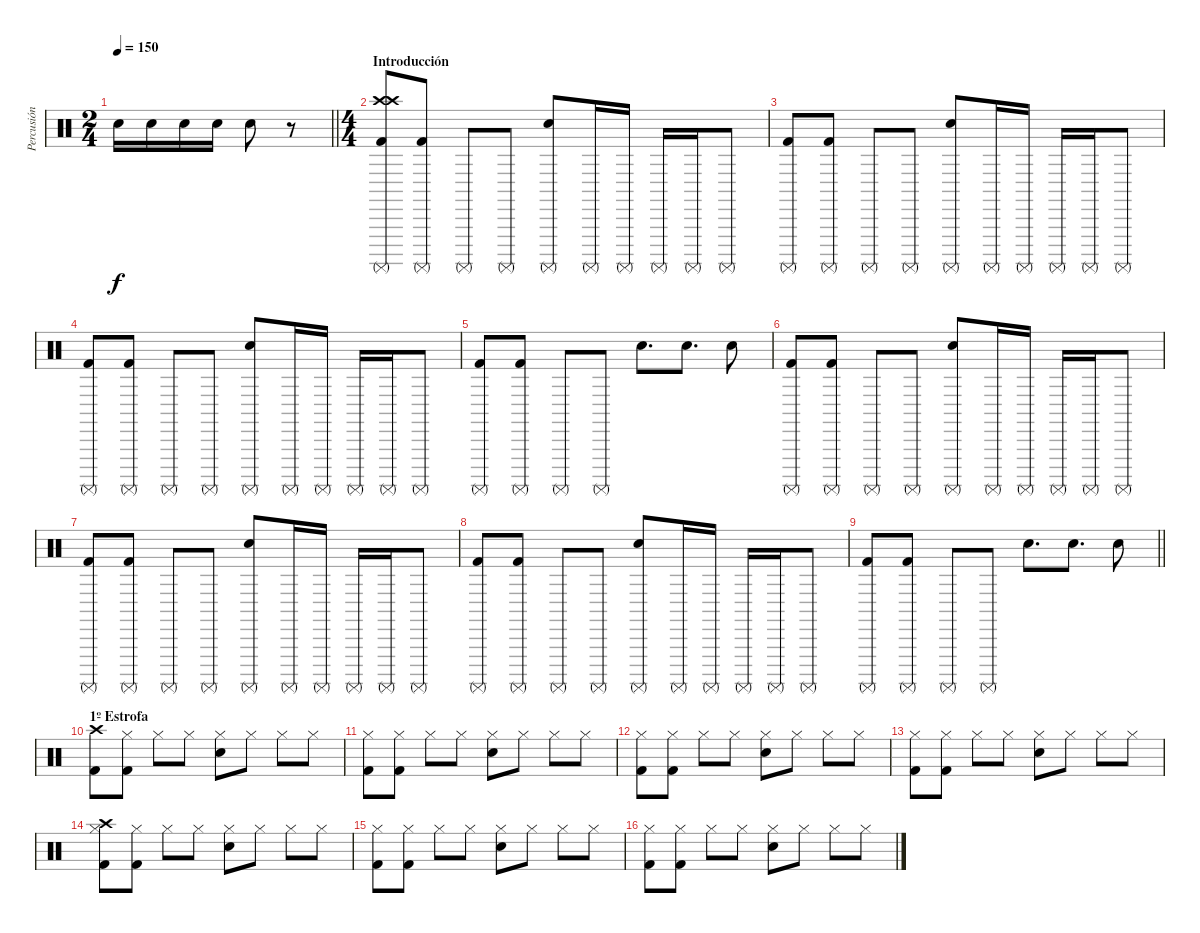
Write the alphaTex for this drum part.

\track ("Percusión" "Percusión") {instrument percussion}
\staff {score}
\articulation defaults
\ts (2 4)
\tempo 150
\clef neutral
\barLineRight lightlight
\ks c "Snare (hit) 2".16{dy f} "Snare (hit) 2".16 "Snare (hit) 2".16 "Snare (hit) 2".16 "Snare (hit) 2".8
r.8 |
\ts (4 4)
\section ("" "Introducción")
("Crash high (hit)" "Crash high (hit)" "Kick (hit) 2" "Surdo (mute)").8 ("Kick (hit) 2" "Surdo (mute)").8 "Surdo (mute)".8 "Surdo (mute)".8 ("Snare (hit) 2" "Surdo (mute)").8 "Surdo (mute)".16 "Surdo (mute)".16 "Surdo (mute)".16 "Surdo (mute)".16 "Surdo (mute)".8 |
("Kick (hit) 2" "Surdo (mute)").8 ("Kick (hit) 2" "Surdo (mute)").8 "Surdo (mute)".8 "Surdo (mute)".8 ("Snare (hit) 2" "Surdo (mute)").8 "Surdo (mute)".16 "Surdo (mute)".16 "Surdo (mute)".16 "Surdo (mute)".16 "Surdo (mute)".8 |
("Kick (hit) 2" "Surdo (mute)").8 ("Kick (hit) 2" "Surdo (mute)").8 "Surdo (mute)".8 "Surdo (mute)".8 ("Snare (hit) 2" "Surdo (mute)").8 "Surdo (mute)".16 "Surdo (mute)".16 "Surdo (mute)".16 "Surdo (mute)".16 "Surdo (mute)".8 |
("Kick (hit) 2" "Surdo (mute)").8 ("Kick (hit) 2" "Surdo (mute)").8 "Surdo (mute)".8 "Surdo (mute)".8 "Snare (hit) 2".8{d} "Snare (hit) 2".8{d} "Snare (hit) 2".8 |
("Kick (hit) 2" "Surdo (mute)").8 ("Kick (hit) 2" "Surdo (mute)").8 "Surdo (mute)".8 "Surdo (mute)".8 ("Snare (hit) 2" "Surdo (mute)").8 "Surdo (mute)".16 "Surdo (mute)".16 "Surdo (mute)".16 "Surdo (mute)".16 "Surdo (mute)".8 |
("Kick (hit) 2" "Surdo (mute)").8 ("Kick (hit) 2" "Surdo (mute)").8 "Surdo (mute)".8 "Surdo (mute)".8 ("Snare (hit) 2" "Surdo (mute)").8 "Surdo (mute)".16 "Surdo (mute)".16 "Surdo (mute)".16 "Surdo (mute)".16 "Surdo (mute)".8 |
("Kick (hit) 2" "Surdo (mute)").8 ("Kick (hit) 2" "Surdo (mute)").8 "Surdo (mute)".8 "Surdo (mute)".8 ("Snare (hit) 2" "Surdo (mute)").8 "Surdo (mute)".16 "Surdo (mute)".16 "Surdo (mute)".16 "Surdo (mute)".16 "Surdo (mute)".8 |
\barLineRight lightlight
("Kick (hit) 2" "Surdo (mute)").8 ("Kick (hit) 2" "Surdo (mute)").8 "Surdo (mute)".8 "Surdo (mute)".8 "Snare (hit) 2".8{d} "Snare (hit) 2".8{d} "Snare (hit) 2".8 |
\section ("" "1º Estrofa")
("Crash high (hit)" "Kick (hit) 2").8 ("Hi-Hat (closed)" "Kick (hit) 2").8 "Hi-Hat (closed)".8 "Hi-Hat (closed)".8 ("Hi-Hat (closed)" "Snare (hit) 2").8 "Hi-Hat (closed)".8 "Hi-Hat (closed)".8 "Hi-Hat (closed)".8 |
("Hi-Hat (closed)" "Kick (hit) 2").8 ("Hi-Hat (closed)" "Kick (hit) 2").8 "Hi-Hat (closed)".8 "Hi-Hat (closed)".8 ("Hi-Hat (closed)" "Snare (hit) 2").8 "Hi-Hat (closed)".8 "Hi-Hat (closed)".8 "Hi-Hat (closed)".8 |
("Hi-Hat (closed)" "Kick (hit) 2").8 ("Hi-Hat (closed)" "Kick (hit) 2").8 "Hi-Hat (closed)".8 "Hi-Hat (closed)".8 ("Hi-Hat (closed)" "Snare (hit) 2").8 "Hi-Hat (closed)".8 "Hi-Hat (closed)".8 "Hi-Hat (closed)".8 |
("Hi-Hat (closed)" "Kick (hit) 2").8 ("Hi-Hat (closed)" "Kick (hit) 2").8 "Hi-Hat (closed)".8 "Hi-Hat (closed)".8 ("Hi-Hat (closed)" "Snare (hit) 2").8 "Hi-Hat (closed)".8 "Hi-Hat (closed)".8 "Hi-Hat (closed)".8 |
("Crash high (hit)" "Hi-Hat (closed)" "Kick (hit) 2").8 ("Hi-Hat (closed)" "Kick (hit) 2").8 "Hi-Hat (closed)".8 "Hi-Hat (closed)".8 ("Hi-Hat (closed)" "Snare (hit) 2").8 "Hi-Hat (closed)".8 "Hi-Hat (closed)".8 "Hi-Hat (closed)".8 |
("Hi-Hat (closed)" "Kick (hit) 2").8 ("Hi-Hat (closed)" "Kick (hit) 2").8 "Hi-Hat (closed)".8 "Hi-Hat (closed)".8 ("Hi-Hat (closed)" "Snare (hit) 2").8 "Hi-Hat (closed)".8 "Hi-Hat (closed)".8 "Hi-Hat (closed)".8 |
("Hi-Hat (closed)" "Kick (hit) 2").8 ("Hi-Hat (closed)" "Kick (hit) 2").8 "Hi-Hat (closed)".8 "Hi-Hat (closed)".8 ("Hi-Hat (closed)" "Snare (hit) 2").8 "Hi-Hat (closed)".8 "Hi-Hat (closed)".8 "Hi-Hat (closed)".8
